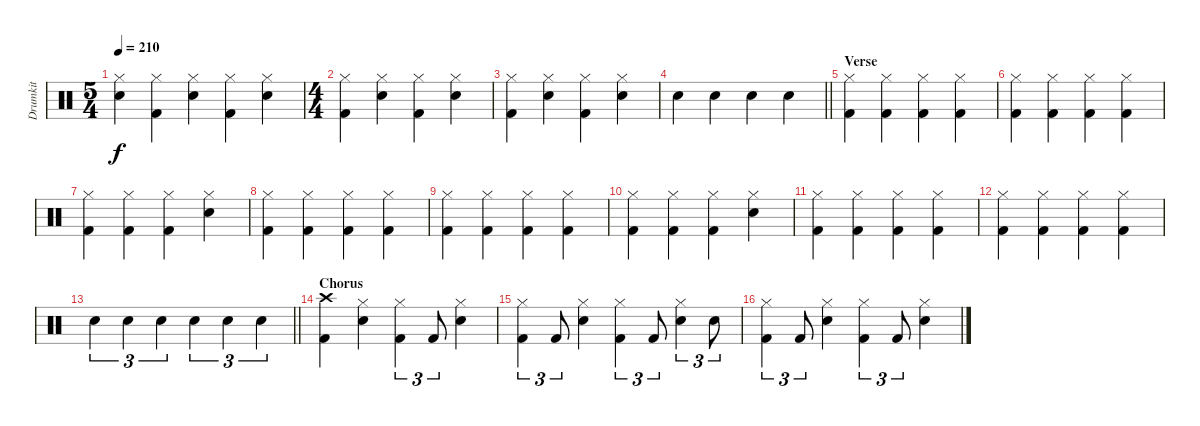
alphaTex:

\track ("Drumkit" "Drumkit") {instrument percussion}
\staff {score}
\articulation defaults
\ts (5 4)
\tempo 210
\clef neutral
\ks c
("Hi-Hat (closed)" "Electric Snare (hit)").4{dy f} ("Hi-Hat (closed)" "Kick (hit) 2").4 ("Hi-Hat (closed)" "Electric Snare (hit)").4 ("Hi-Hat (closed)" "Kick (hit) 2").4 ("Hi-Hat (closed)" "Electric Snare (hit)").4 |
\ts (4 4)
("Hi-Hat (closed)" "Kick (hit) 2").4 ("Hi-Hat (closed)" "Electric Snare (hit)").4 ("Hi-Hat (closed)" "Kick (hit) 2").4 ("Hi-Hat (closed)" "Electric Snare (hit)").4 |
("Hi-Hat (closed)" "Kick (hit) 2").4 ("Hi-Hat (closed)" "Electric Snare (hit)").4 ("Hi-Hat (closed)" "Kick (hit) 2").4 ("Hi-Hat (closed)" "Electric Snare (hit)").4 |
\barLineRight lightlight "Electric Snare (hit)".4 "Electric Snare (hit)".4 "Electric Snare (hit)".4 "Electric Snare (hit)".4
|
\section ("" "Verse")
("Hi-Hat (closed)" "Kick (hit) 2").4 ("Hi-Hat (closed)" "Kick (hit) 2").4 ("Hi-Hat (closed)" "Kick (hit) 2").4 ("Hi-Hat (closed)" "Kick (hit) 2").4 |
("Hi-Hat (closed)" "Kick (hit) 2").4 ("Hi-Hat (closed)" "Kick (hit) 2").4 ("Hi-Hat (closed)" "Kick (hit) 2").4 ("Hi-Hat (closed)" "Kick (hit) 2").4 |
("Hi-Hat (closed)" "Kick (hit) 2").4 ("Hi-Hat (closed)" "Kick (hit) 2").4 ("Hi-Hat (closed)" "Kick (hit) 2").4 ("Hi-Hat (closed)" "Electric Snare (hit)").4 |
("Hi-Hat (closed)" "Kick (hit) 2").4 ("Hi-Hat (closed)" "Kick (hit) 2").4 ("Hi-Hat (closed)" "Kick (hit) 2").4 ("Hi-Hat (closed)" "Kick (hit) 2").4 |
("Hi-Hat (closed)" "Kick (hit) 2").4 ("Hi-Hat (closed)" "Kick (hit) 2").4 ("Hi-Hat (closed)" "Kick (hit) 2").4 ("Hi-Hat (closed)" "Kick (hit) 2").4 |
("Hi-Hat (closed)" "Kick (hit) 2").4 ("Hi-Hat (closed)" "Kick (hit) 2").4 ("Hi-Hat (closed)" "Kick (hit) 2").4 ("Hi-Hat (closed)" "Electric Snare (hit)").4 |
("Hi-Hat (closed)" "Kick (hit) 2").4 ("Hi-Hat (closed)" "Kick (hit) 2").4 ("Hi-Hat (closed)" "Kick (hit) 2").4 ("Hi-Hat (closed)" "Kick (hit) 2").4 |
("Hi-Hat (closed)" "Kick (hit) 2").4 ("Hi-Hat (closed)" "Kick (hit) 2").4 ("Hi-Hat (closed)" "Kick (hit) 2").4 ("Hi-Hat (closed)" "Kick (hit) 2").4 |
\barLineRight lightlight "Electric Snare (hit)".4{tu (3 2)} "Electric Snare (hit)".4{tu (3 2)} "Electric Snare (hit)".4{tu (3 2)} "Electric Snare (hit)".4{tu (3 2)} "Electric Snare (hit)".4{tu (3 2)} "Electric Snare (hit)".4{tu (3 2)}
|
\section ("" "Chorus")
("Crash high (hit)" "Kick (hit) 2").4 ("Hi-Hat (closed)" "Electric Snare (hit)").4 ("Hi-Hat (closed)" "Kick (hit) 2").4{tu (3 2)} "Kick (hit) 2".8{tu (3 2)} ("Hi-Hat (closed)" "Electric Snare (hit)").4 |
("Hi-Hat (closed)" "Kick (hit) 2").4{tu (3 2)} "Kick (hit) 2".8{tu (3 2)} ("Hi-Hat (closed)" "Electric Snare (hit)").4 ("Hi-Hat (closed)" "Kick (hit) 2").4{tu (3 2)} "Kick (hit) 2".8{tu (3 2)} ("Hi-Hat (closed)" "Electric Snare (hit)").4{tu (3 2)} "Electric Snare (hit)".8{tu (3 2)} |
("Hi-Hat (closed)" "Kick (hit) 2").4{tu (3 2)} "Kick (hit) 2".8{tu (3 2)} ("Hi-Hat (closed)" "Electric Snare (hit)").4 ("Hi-Hat (closed)" "Kick (hit) 2").4{tu (3 2)} "Kick (hit) 2".8{tu (3 2)} ("Hi-Hat (closed)" "Electric Snare (hit)").4
